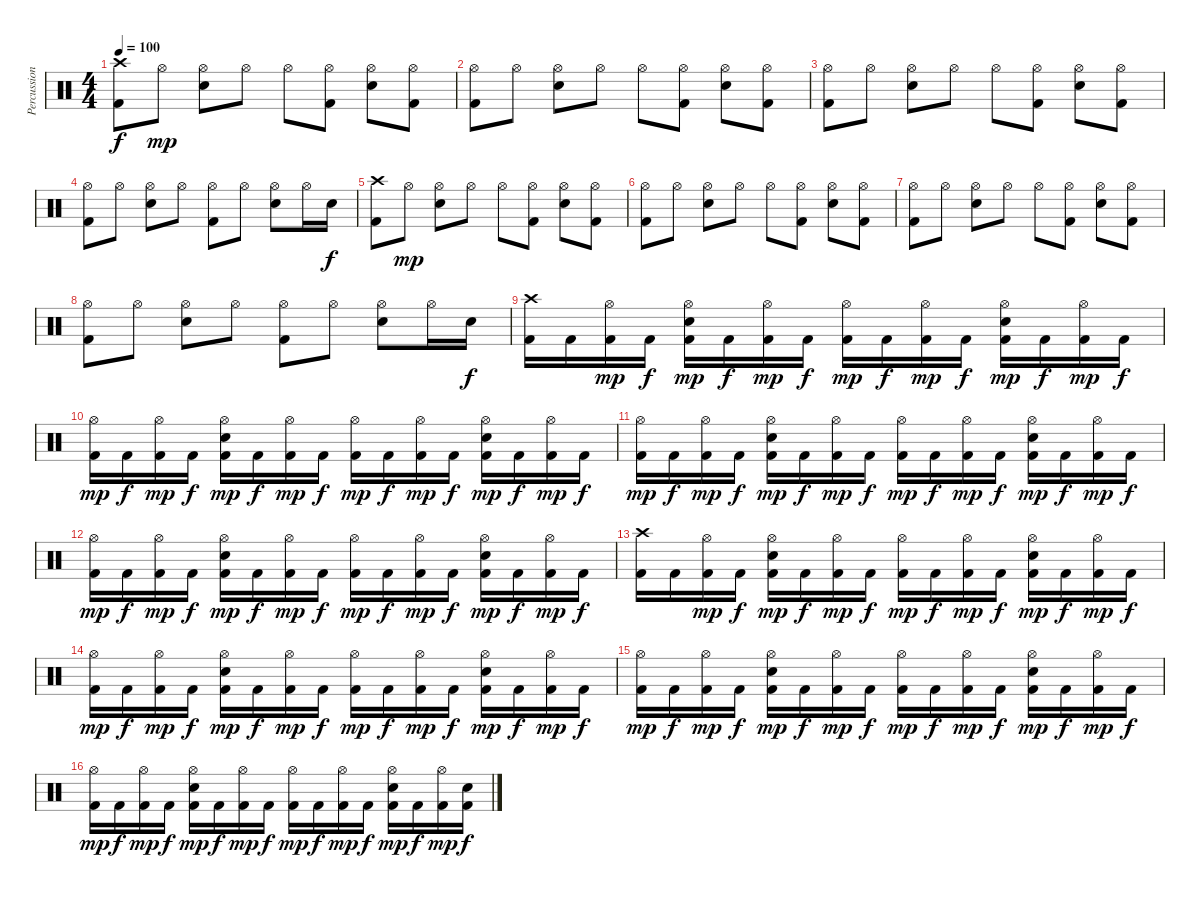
\track ("Percussion" "Percussion") {instrument percussion}
\staff {score}
\articulation defaults
\ts (4 4)
\tempo 100
\clef neutral
\ks c
("Crash high (hit)" "Kick (hit) 2").8{dy f} "Hi-Hat (open)".8{dy mp} ("Hi-Hat (open)" "Electric Snare (hit)").8 "Hi-Hat (open)".8 "Hi-Hat (open)".8 ("Hi-Hat (open)" "Kick (hit) 2").8 ("Hi-Hat (open)" "Electric Snare (hit)").8 ("Hi-Hat (open)" "Kick (hit) 2").8 |
("Hi-Hat (open)" "Kick (hit) 2").8 "Hi-Hat (open)".8 ("Hi-Hat (open)" "Electric Snare (hit)").8 "Hi-Hat (open)".8 "Hi-Hat (open)".8 ("Hi-Hat (open)" "Kick (hit) 2").8 ("Hi-Hat (open)" "Electric Snare (hit)").8 ("Hi-Hat (open)" "Kick (hit) 2").8 |
("Hi-Hat (open)" "Kick (hit) 2").8 "Hi-Hat (open)".8 ("Hi-Hat (open)" "Electric Snare (hit)").8 "Hi-Hat (open)".8 "Hi-Hat (open)".8 ("Hi-Hat (open)" "Kick (hit) 2").8 ("Hi-Hat (open)" "Electric Snare (hit)").8 ("Hi-Hat (open)" "Kick (hit) 2").8 |
("Hi-Hat (open)" "Kick (hit) 2").8 "Hi-Hat (open)".8 ("Hi-Hat (open)" "Electric Snare (hit)").8 "Hi-Hat (open)".8 ("Hi-Hat (open)" "Kick (hit) 2").8 "Hi-Hat (open)".8 ("Hi-Hat (open)" "Electric Snare (hit)").8 "Hi-Hat (open)".16 "Electric Snare (hit)".16{dy f} |
("Crash high (hit)" "Kick (hit) 2").8 "Hi-Hat (open)".8{dy mp} ("Hi-Hat (open)" "Electric Snare (hit)").8 "Hi-Hat (open)".8 "Hi-Hat (open)".8 ("Hi-Hat (open)" "Kick (hit) 2").8 ("Hi-Hat (open)" "Electric Snare (hit)").8 ("Hi-Hat (open)" "Kick (hit) 2").8 |
("Hi-Hat (open)" "Kick (hit) 2").8 "Hi-Hat (open)".8 ("Hi-Hat (open)" "Electric Snare (hit)").8 "Hi-Hat (open)".8 "Hi-Hat (open)".8 ("Hi-Hat (open)" "Kick (hit) 2").8 ("Hi-Hat (open)" "Electric Snare (hit)").8 ("Hi-Hat (open)" "Kick (hit) 2").8 |
("Hi-Hat (open)" "Kick (hit) 2").8 "Hi-Hat (open)".8 ("Hi-Hat (open)" "Electric Snare (hit)").8 "Hi-Hat (open)".8 "Hi-Hat (open)".8 ("Hi-Hat (open)" "Kick (hit) 2").8 ("Hi-Hat (open)" "Electric Snare (hit)").8 ("Hi-Hat (open)" "Kick (hit) 2").8 |
("Hi-Hat (open)" "Kick (hit) 2").8 "Hi-Hat (open)".8 ("Hi-Hat (open)" "Electric Snare (hit)").8 "Hi-Hat (open)".8 ("Hi-Hat (open)" "Kick (hit) 2").8 "Hi-Hat (open)".8 ("Hi-Hat (open)" "Electric Snare (hit)").8 "Hi-Hat (open)".16 "Electric Snare (hit)".16{dy f} |
("Crash high (hit)" "Kick (hit) 2").16 "Kick (hit) 2".16 ("Hi-Hat (open)" "Kick (hit) 2").16{dy mp} "Kick (hit) 2".16{dy f} ("Hi-Hat (open)" "Electric Snare (hit)" "Kick (hit) 2").16{dy mp} "Kick (hit) 2".16{dy f} ("Hi-Hat (open)" "Kick (hit) 2").16{dy mp} "Kick (hit) 2".16{dy f} ("Hi-Hat (open)" "Kick (hit) 2").16{dy mp} "Kick (hit) 2".16{dy f} ("Hi-Hat (open)" "Kick (hit) 2").16{dy mp} "Kick (hit) 2".16{dy f} ("Hi-Hat (open)" "Electric Snare (hit)" "Kick (hit) 2").16{dy mp} "Kick (hit) 2".16{dy f} ("Hi-Hat (open)" "Kick (hit) 2").16{dy mp} "Kick (hit) 2".16{dy f} |
("Hi-Hat (open)" "Kick (hit) 2").16{dy mp} "Kick (hit) 2".16{dy f} ("Hi-Hat (open)" "Kick (hit) 2").16{dy mp} "Kick (hit) 2".16{dy f} ("Hi-Hat (open)" "Electric Snare (hit)" "Kick (hit) 2").16{dy mp} "Kick (hit) 2".16{dy f} ("Hi-Hat (open)" "Kick (hit) 2").16{dy mp} "Kick (hit) 2".16{dy f} ("Hi-Hat (open)" "Kick (hit) 2").16{dy mp} "Kick (hit) 2".16{dy f} ("Hi-Hat (open)" "Kick (hit) 2").16{dy mp} "Kick (hit) 2".16{dy f} ("Hi-Hat (open)" "Electric Snare (hit)" "Kick (hit) 2").16{dy mp} "Kick (hit) 2".16{dy f} ("Hi-Hat (open)" "Kick (hit) 2").16{dy mp} "Kick (hit) 2".16{dy f} |
("Hi-Hat (open)" "Kick (hit) 2").16{dy mp} "Kick (hit) 2".16{dy f} ("Hi-Hat (open)" "Kick (hit) 2").16{dy mp} "Kick (hit) 2".16{dy f} ("Hi-Hat (open)" "Electric Snare (hit)" "Kick (hit) 2").16{dy mp} "Kick (hit) 2".16{dy f} ("Hi-Hat (open)" "Kick (hit) 2").16{dy mp} "Kick (hit) 2".16{dy f} ("Hi-Hat (open)" "Kick (hit) 2").16{dy mp} "Kick (hit) 2".16{dy f} ("Hi-Hat (open)" "Kick (hit) 2").16{dy mp} "Kick (hit) 2".16{dy f} ("Hi-Hat (open)" "Electric Snare (hit)" "Kick (hit) 2").16{dy mp} "Kick (hit) 2".16{dy f} ("Hi-Hat (open)" "Kick (hit) 2").16{dy mp} "Kick (hit) 2".16{dy f} |
("Hi-Hat (open)" "Kick (hit) 2").16{dy mp} "Kick (hit) 2".16{dy f} ("Hi-Hat (open)" "Kick (hit) 2").16{dy mp} "Kick (hit) 2".16{dy f} ("Hi-Hat (open)" "Electric Snare (hit)" "Kick (hit) 2").16{dy mp} "Kick (hit) 2".16{dy f} ("Hi-Hat (open)" "Kick (hit) 2").16{dy mp} "Kick (hit) 2".16{dy f} ("Hi-Hat (open)" "Kick (hit) 2").16{dy mp} "Kick (hit) 2".16{dy f} ("Hi-Hat (open)" "Kick (hit) 2").16{dy mp} "Kick (hit) 2".16{dy f} ("Hi-Hat (open)" "Electric Snare (hit)" "Kick (hit) 2").16{dy mp} "Kick (hit) 2".16{dy f} ("Hi-Hat (open)" "Kick (hit) 2").16{dy mp} "Kick (hit) 2".16{dy f} |
("Crash high (hit)" "Kick (hit) 2").16 "Kick (hit) 2".16 ("Hi-Hat (open)" "Kick (hit) 2").16{dy mp} "Kick (hit) 2".16{dy f} ("Hi-Hat (open)" "Electric Snare (hit)" "Kick (hit) 2").16{dy mp} "Kick (hit) 2".16{dy f} ("Hi-Hat (open)" "Kick (hit) 2").16{dy mp} "Kick (hit) 2".16{dy f} ("Hi-Hat (open)" "Kick (hit) 2").16{dy mp} "Kick (hit) 2".16{dy f} ("Hi-Hat (open)" "Kick (hit) 2").16{dy mp} "Kick (hit) 2".16{dy f} ("Hi-Hat (open)" "Electric Snare (hit)" "Kick (hit) 2").16{dy mp} "Kick (hit) 2".16{dy f} ("Hi-Hat (open)" "Kick (hit) 2").16{dy mp} "Kick (hit) 2".16{dy f} |
("Hi-Hat (open)" "Kick (hit) 2").16{dy mp} "Kick (hit) 2".16{dy f} ("Hi-Hat (open)" "Kick (hit) 2").16{dy mp} "Kick (hit) 2".16{dy f} ("Hi-Hat (open)" "Electric Snare (hit)" "Kick (hit) 2").16{dy mp} "Kick (hit) 2".16{dy f} ("Hi-Hat (open)" "Kick (hit) 2").16{dy mp} "Kick (hit) 2".16{dy f} ("Hi-Hat (open)" "Kick (hit) 2").16{dy mp} "Kick (hit) 2".16{dy f} ("Hi-Hat (open)" "Kick (hit) 2").16{dy mp} "Kick (hit) 2".16{dy f} ("Hi-Hat (open)" "Electric Snare (hit)" "Kick (hit) 2").16{dy mp} "Kick (hit) 2".16{dy f} ("Hi-Hat (open)" "Kick (hit) 2").16{dy mp} "Kick (hit) 2".16{dy f} |
("Hi-Hat (open)" "Kick (hit) 2").16{dy mp} "Kick (hit) 2".16{dy f} ("Hi-Hat (open)" "Kick (hit) 2").16{dy mp} "Kick (hit) 2".16{dy f} ("Hi-Hat (open)" "Electric Snare (hit)" "Kick (hit) 2").16{dy mp} "Kick (hit) 2".16{dy f} ("Hi-Hat (open)" "Kick (hit) 2").16{dy mp} "Kick (hit) 2".16{dy f} ("Hi-Hat (open)" "Kick (hit) 2").16{dy mp} "Kick (hit) 2".16{dy f} ("Hi-Hat (open)" "Kick (hit) 2").16{dy mp} "Kick (hit) 2".16{dy f} ("Hi-Hat (open)" "Electric Snare (hit)" "Kick (hit) 2").16{dy mp} "Kick (hit) 2".16{dy f} ("Hi-Hat (open)" "Kick (hit) 2").16{dy mp} "Kick (hit) 2".16{dy f} |
("Hi-Hat (open)" "Kick (hit) 2").16{dy mp} "Kick (hit) 2".16{dy f} ("Hi-Hat (open)" "Kick (hit) 2").16{dy mp} "Kick (hit) 2".16{dy f} ("Hi-Hat (open)" "Electric Snare (hit)" "Kick (hit) 2").16{dy mp} "Kick (hit) 2".16{dy f} ("Hi-Hat (open)" "Kick (hit) 2").16{dy mp} "Kick (hit) 2".16{dy f} ("Hi-Hat (open)" "Kick (hit) 2").16{dy mp} "Kick (hit) 2".16{dy f} ("Hi-Hat (open)" "Kick (hit) 2").16{dy mp} "Kick (hit) 2".16{dy f} ("Hi-Hat (open)" "Electric Snare (hit)" "Kick (hit) 2").16{dy mp} "Kick (hit) 2".16{dy f} ("Hi-Hat (open)" "Kick (hit) 2").16{dy mp} ("Electric Snare (hit)" "Kick (hit) 2").16{dy f}
